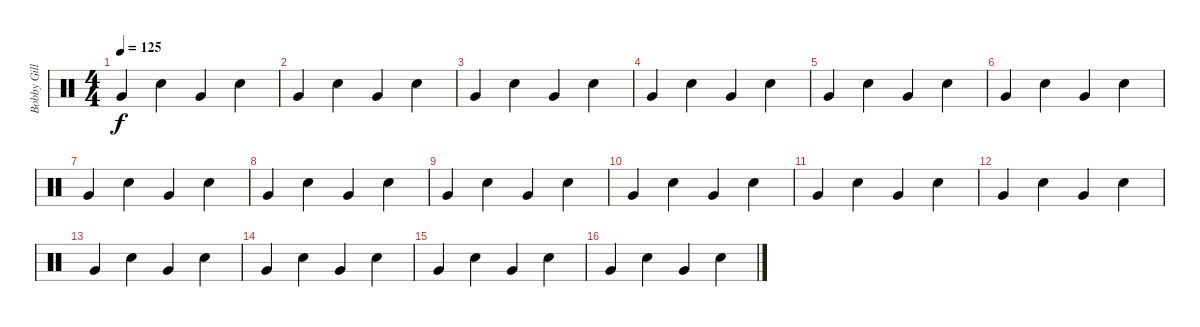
\track ("Bobby Gillespie" "Bobby Gill") {instrument percussion}
\staff {score}
\articulation defaults
\ts (4 4)
\tempo 125
\clef neutral
\ks c "Very Low Tom (hit)".4{dy f} "Electric Snare (hit)".4 "Very Low Tom (hit)".4 "Electric Snare (hit)".4
|
"Very Low Tom (hit)".4 "Electric Snare (hit)".4 "Very Low Tom (hit)".4 "Electric Snare (hit)".4 |
"Very Low Tom (hit)".4 "Electric Snare (hit)".4 "Very Low Tom (hit)".4 "Electric Snare (hit)".4 |
"Very Low Tom (hit)".4 "Electric Snare (hit)".4 "Very Low Tom (hit)".4 "Electric Snare (hit)".4 |
"Very Low Tom (hit)".4 "Electric Snare (hit)".4 "Very Low Tom (hit)".4 "Electric Snare (hit)".4 |
"Very Low Tom (hit)".4 "Electric Snare (hit)".4 "Very Low Tom (hit)".4 "Electric Snare (hit)".4 |
"Very Low Tom (hit)".4 "Electric Snare (hit)".4 "Very Low Tom (hit)".4 "Electric Snare (hit)".4 |
"Very Low Tom (hit)".4 "Electric Snare (hit)".4 "Very Low Tom (hit)".4 "Electric Snare (hit)".4 |
"Very Low Tom (hit)".4 "Electric Snare (hit)".4 "Very Low Tom (hit)".4 "Electric Snare (hit)".4 |
"Very Low Tom (hit)".4 "Electric Snare (hit)".4 "Very Low Tom (hit)".4 "Electric Snare (hit)".4 |
"Very Low Tom (hit)".4 "Electric Snare (hit)".4 "Very Low Tom (hit)".4 "Electric Snare (hit)".4 |
"Very Low Tom (hit)".4 "Electric Snare (hit)".4 "Very Low Tom (hit)".4 "Electric Snare (hit)".4 |
"Very Low Tom (hit)".4 "Electric Snare (hit)".4 "Very Low Tom (hit)".4 "Electric Snare (hit)".4 |
"Very Low Tom (hit)".4 "Electric Snare (hit)".4 "Very Low Tom (hit)".4 "Electric Snare (hit)".4 |
"Very Low Tom (hit)".4 "Electric Snare (hit)".4 "Very Low Tom (hit)".4 "Electric Snare (hit)".4 |
"Very Low Tom (hit)".4 "Electric Snare (hit)".4 "Very Low Tom (hit)".4 "Electric Snare (hit)".4
